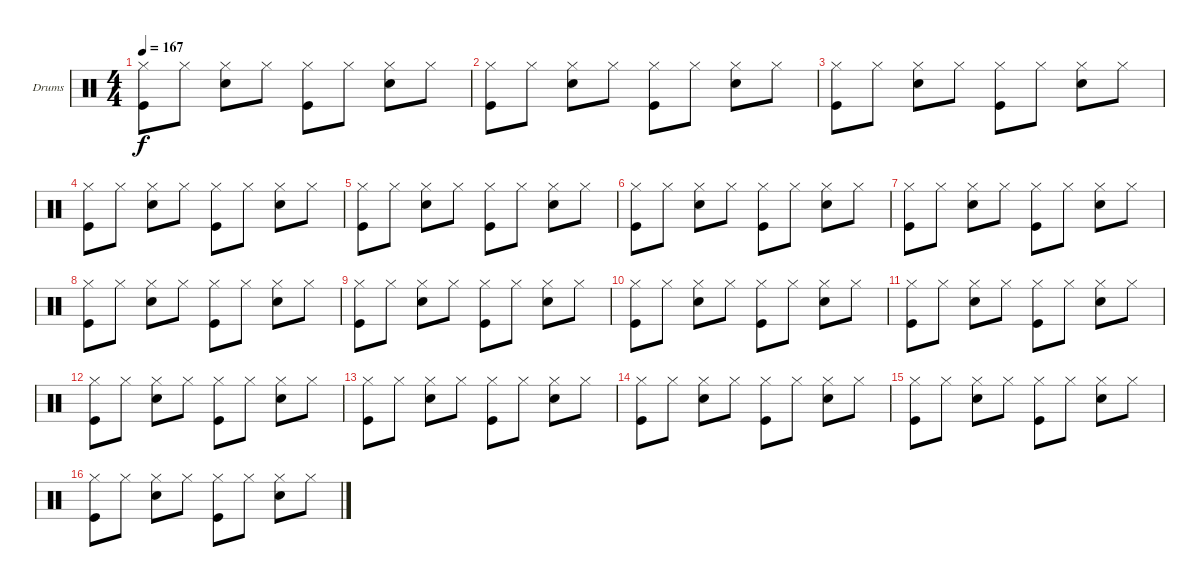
\bracketExtendMode groupsimilarinstruments
\firstSystemTrackNameOrientation horizontal
\otherSystemsTrackNameOrientation horizontal
\track ("Drumkit" "Drums") {instrument percussion}
\staff {score}
\articulation defaults
\ts (4 4)
\tempo 167
\clef neutral
\ks c
("Hi-Hat (closed)" "Kick (hit)").8{dy f} "Hi-Hat (closed)".8 ("Hi-Hat (closed)" "Snare (hit) 2").8 "Hi-Hat (closed)".8 ("Hi-Hat (closed)" "Kick (hit)").8 "Hi-Hat (closed)".8 ("Hi-Hat (closed)" "Snare (hit) 2").8 "Hi-Hat (closed)".8 |
("Hi-Hat (closed)" "Kick (hit)").8 "Hi-Hat (closed)".8 ("Hi-Hat (closed)" "Snare (hit) 2").8 "Hi-Hat (closed)".8 ("Hi-Hat (closed)" "Kick (hit)").8 "Hi-Hat (closed)".8 ("Hi-Hat (closed)" "Snare (hit) 2").8 "Hi-Hat (closed)".8 |
("Hi-Hat (closed)" "Kick (hit)").8 "Hi-Hat (closed)".8 ("Hi-Hat (closed)" "Snare (hit) 2").8 "Hi-Hat (closed)".8 ("Hi-Hat (closed)" "Kick (hit)").8 "Hi-Hat (closed)".8 ("Hi-Hat (closed)" "Snare (hit) 2").8 "Hi-Hat (closed)".8 |
("Hi-Hat (closed)" "Kick (hit)").8 "Hi-Hat (closed)".8 ("Hi-Hat (closed)" "Snare (hit) 2").8 "Hi-Hat (closed)".8 ("Hi-Hat (closed)" "Kick (hit)").8 "Hi-Hat (closed)".8 ("Hi-Hat (closed)" "Snare (hit) 2").8 "Hi-Hat (closed)".8 |
("Hi-Hat (closed)" "Kick (hit)").8 "Hi-Hat (closed)".8 ("Hi-Hat (closed)" "Snare (hit) 2").8 "Hi-Hat (closed)".8 ("Hi-Hat (closed)" "Kick (hit)").8 "Hi-Hat (closed)".8 ("Hi-Hat (closed)" "Snare (hit) 2").8 "Hi-Hat (closed)".8 |
("Hi-Hat (closed)" "Kick (hit)").8 "Hi-Hat (closed)".8 ("Hi-Hat (closed)" "Snare (hit) 2").8 "Hi-Hat (closed)".8 ("Hi-Hat (closed)" "Kick (hit)").8 "Hi-Hat (closed)".8 ("Hi-Hat (closed)" "Snare (hit) 2").8 "Hi-Hat (closed)".8 |
("Hi-Hat (closed)" "Kick (hit)").8 "Hi-Hat (closed)".8 ("Hi-Hat (closed)" "Snare (hit) 2").8 "Hi-Hat (closed)".8 ("Hi-Hat (closed)" "Kick (hit)").8 "Hi-Hat (closed)".8 ("Hi-Hat (closed)" "Snare (hit) 2").8 "Hi-Hat (closed)".8 |
("Hi-Hat (closed)" "Kick (hit)").8 "Hi-Hat (closed)".8 ("Hi-Hat (closed)" "Snare (hit) 2").8 "Hi-Hat (closed)".8 ("Hi-Hat (closed)" "Kick (hit)").8 "Hi-Hat (closed)".8 ("Hi-Hat (closed)" "Snare (hit) 2").8 "Hi-Hat (closed)".8 |
("Hi-Hat (closed)" "Kick (hit)").8 "Hi-Hat (closed)".8 ("Hi-Hat (closed)" "Snare (hit) 2").8 "Hi-Hat (closed)".8 ("Hi-Hat (closed)" "Kick (hit)").8 "Hi-Hat (closed)".8 ("Hi-Hat (closed)" "Snare (hit) 2").8 "Hi-Hat (closed)".8 |
("Hi-Hat (closed)" "Kick (hit)").8 "Hi-Hat (closed)".8 ("Hi-Hat (closed)" "Snare (hit) 2").8 "Hi-Hat (closed)".8 ("Hi-Hat (closed)" "Kick (hit)").8 "Hi-Hat (closed)".8 ("Hi-Hat (closed)" "Snare (hit) 2").8 "Hi-Hat (closed)".8 |
("Hi-Hat (closed)" "Kick (hit)").8 "Hi-Hat (closed)".8 ("Hi-Hat (closed)" "Snare (hit) 2").8 "Hi-Hat (closed)".8 ("Hi-Hat (closed)" "Kick (hit)").8 "Hi-Hat (closed)".8 ("Hi-Hat (closed)" "Snare (hit) 2").8 "Hi-Hat (closed)".8 |
("Hi-Hat (closed)" "Kick (hit)").8 "Hi-Hat (closed)".8 ("Hi-Hat (closed)" "Snare (hit) 2").8 "Hi-Hat (closed)".8 ("Hi-Hat (closed)" "Kick (hit)").8 "Hi-Hat (closed)".8 ("Hi-Hat (closed)" "Snare (hit) 2").8 "Hi-Hat (closed)".8 |
("Hi-Hat (closed)" "Kick (hit)").8 "Hi-Hat (closed)".8 ("Hi-Hat (closed)" "Snare (hit) 2").8 "Hi-Hat (closed)".8 ("Hi-Hat (closed)" "Kick (hit)").8 "Hi-Hat (closed)".8 ("Hi-Hat (closed)" "Snare (hit) 2").8 "Hi-Hat (closed)".8 |
("Hi-Hat (closed)" "Kick (hit)").8 "Hi-Hat (closed)".8 ("Hi-Hat (closed)" "Snare (hit) 2").8 "Hi-Hat (closed)".8 ("Hi-Hat (closed)" "Kick (hit)").8 "Hi-Hat (closed)".8 ("Hi-Hat (closed)" "Snare (hit) 2").8 "Hi-Hat (closed)".8 |
("Hi-Hat (closed)" "Kick (hit)").8 "Hi-Hat (closed)".8 ("Hi-Hat (closed)" "Snare (hit) 2").8 "Hi-Hat (closed)".8 ("Hi-Hat (closed)" "Kick (hit)").8 "Hi-Hat (closed)".8 ("Hi-Hat (closed)" "Snare (hit) 2").8 "Hi-Hat (closed)".8 |
("Hi-Hat (closed)" "Kick (hit)").8 "Hi-Hat (closed)".8 ("Hi-Hat (closed)" "Snare (hit) 2").8 "Hi-Hat (closed)".8 ("Hi-Hat (closed)" "Kick (hit)").8 "Hi-Hat (closed)".8 ("Hi-Hat (closed)" "Snare (hit) 2").8 "Hi-Hat (closed)".8
